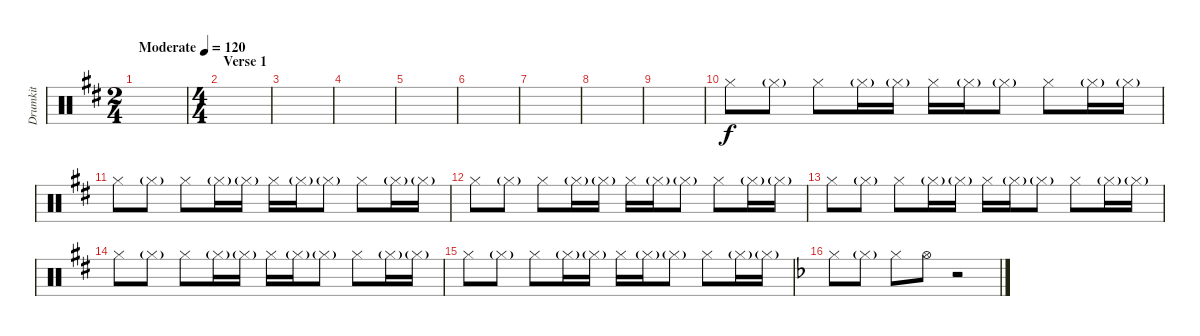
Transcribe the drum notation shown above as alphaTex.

\track ("Drumkit" "Drumkit") {instrument percussion}
\staff {score}
\articulation defaults
\ts (2 4)
\tempo (120 "Moderate")
\clef neutral
\ks d
|
\ts (4 4)
\section ("" "Verse 1")
|
|
|
|
|
|
|
|
"Hi-Hat (closed)".8 "Hi-Hat (closed)"{g}.8 "Hi-Hat (closed)".8 "Hi-Hat (closed)"{g}.16 "Hi-Hat (closed)"{g}.16 "Hi-Hat (closed)".16 "Hi-Hat (closed)"{g}.16 "Hi-Hat (closed)"{g}.8 "Hi-Hat (closed)".8 "Hi-Hat (closed)"{g}.16 "Hi-Hat (closed)"{g}.16 |
"Hi-Hat (closed)".8 "Hi-Hat (closed)"{g}.8 "Hi-Hat (closed)".8 "Hi-Hat (closed)"{g}.16 "Hi-Hat (closed)"{g}.16 "Hi-Hat (closed)".16 "Hi-Hat (closed)"{g}.16 "Hi-Hat (closed)"{g}.8 "Hi-Hat (closed)".8 "Hi-Hat (closed)"{g}.16 "Hi-Hat (closed)"{g}.16 |
"Hi-Hat (closed)".8 "Hi-Hat (closed)"{g}.8 "Hi-Hat (closed)".8 "Hi-Hat (closed)"{g}.16 "Hi-Hat (closed)"{g}.16 "Hi-Hat (closed)".16 "Hi-Hat (closed)"{g}.16 "Hi-Hat (closed)"{g}.8 "Hi-Hat (closed)".8 "Hi-Hat (closed)"{g}.16 "Hi-Hat (closed)"{g}.16 |
"Hi-Hat (closed)".8 "Hi-Hat (closed)"{g}.8 "Hi-Hat (closed)".8 "Hi-Hat (closed)"{g}.16 "Hi-Hat (closed)"{g}.16 "Hi-Hat (closed)".16 "Hi-Hat (closed)"{g}.16 "Hi-Hat (closed)"{g}.8 "Hi-Hat (closed)".8 "Hi-Hat (closed)"{g}.16 "Hi-Hat (closed)"{g}.16 |
"Hi-Hat (closed)".8 "Hi-Hat (closed)"{g}.8 "Hi-Hat (closed)".8 "Hi-Hat (closed)"{g}.16 "Hi-Hat (closed)"{g}.16 "Hi-Hat (closed)".16 "Hi-Hat (closed)"{g}.16 "Hi-Hat (closed)"{g}.8 "Hi-Hat (closed)".8 "Hi-Hat (closed)"{g}.16 "Hi-Hat (closed)"{g}.16 |
"Hi-Hat (closed)".8 "Hi-Hat (closed)"{g}.8 "Hi-Hat (closed)".8 "Hi-Hat (closed)"{g}.16 "Hi-Hat (closed)"{g}.16 "Hi-Hat (closed)".16 "Hi-Hat (closed)"{g}.16 "Hi-Hat (closed)"{g}.8 "Hi-Hat (closed)".8 "Hi-Hat (closed)"{g}.16 "Hi-Hat (closed)"{g}.16 |
\ks f "Hi-Hat (closed)".8 "Hi-Hat (closed)"{g}.8 "Hi-Hat (closed)".8 "Hi-Hat (open)".8
r.2
